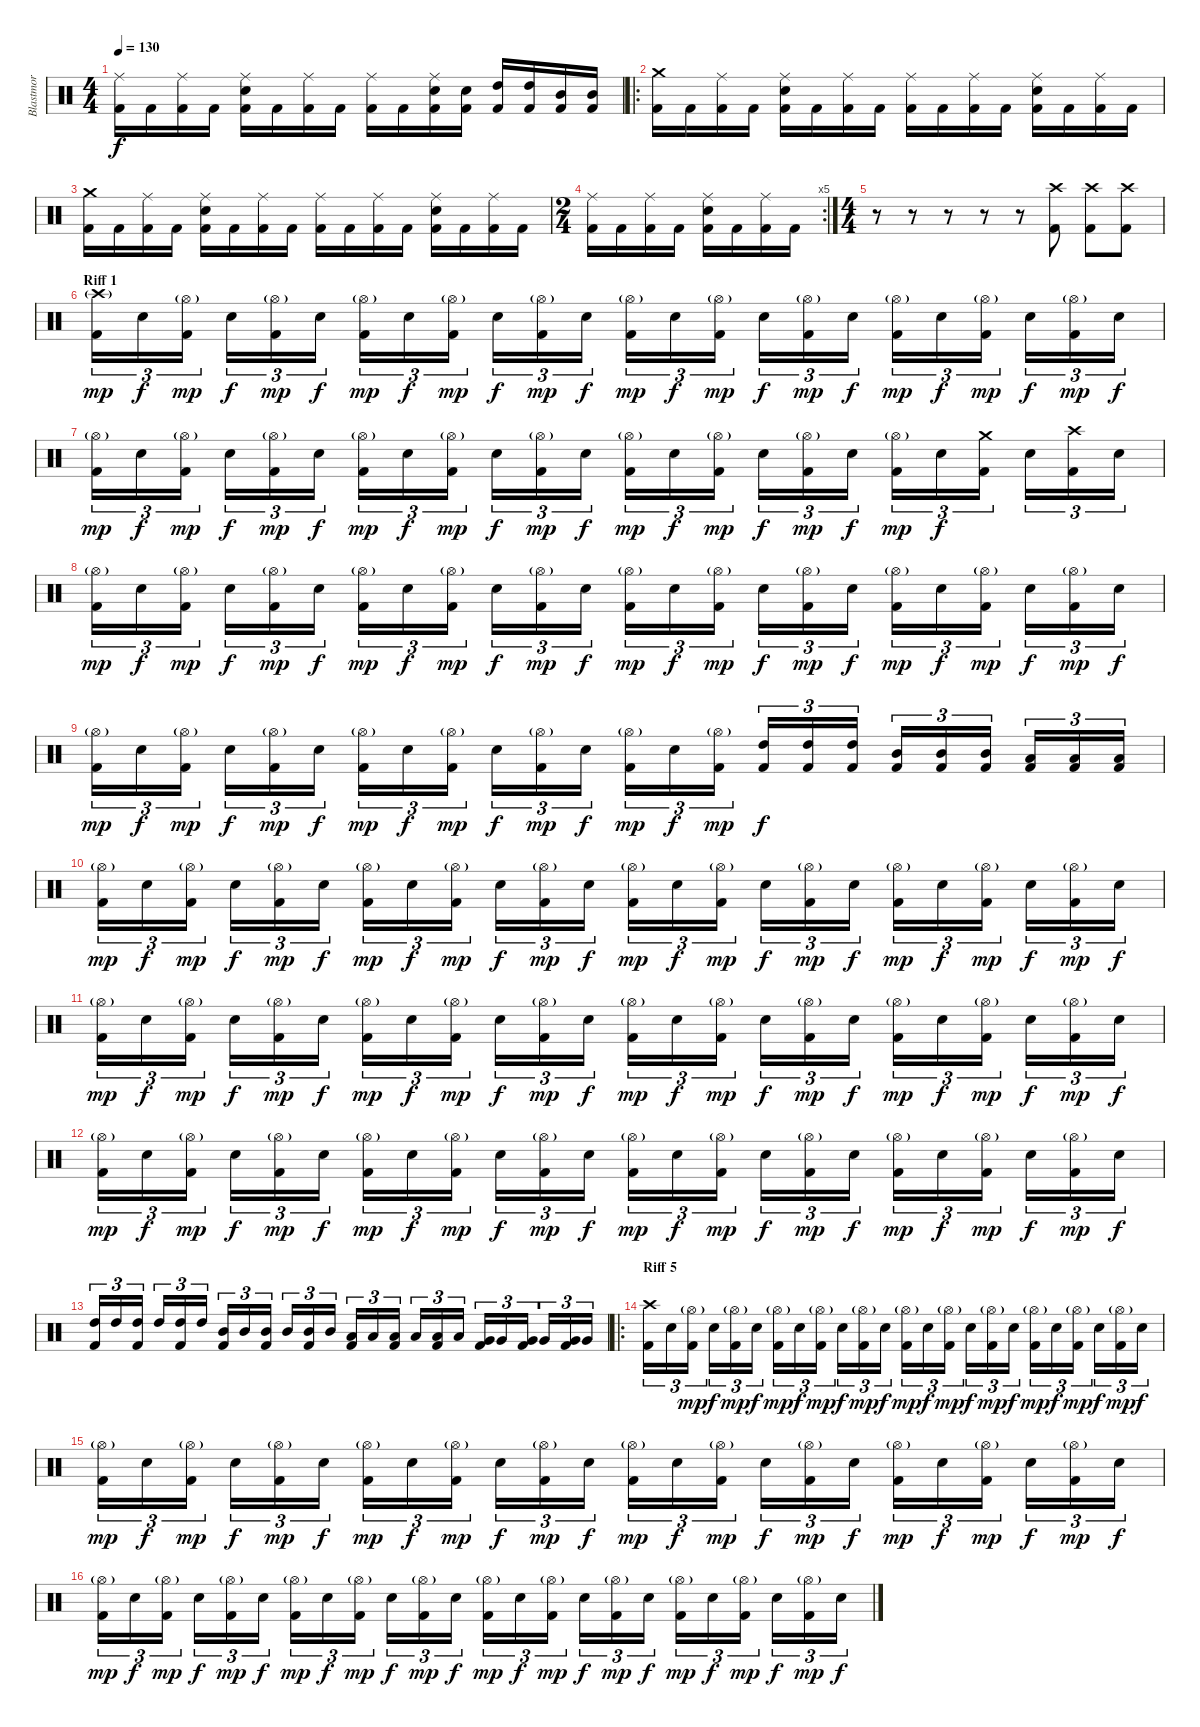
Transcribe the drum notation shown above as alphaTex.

\track ("Blastmor" "Blastmor") {instrument percussion}
\staff {score}
\articulation defaults
\ts (4 4)
\tempo 130
\clef neutral
\ks c
("Ride (middle)" "Kick (hit) 2").16{dy f} "Kick (hit) 2".16 ("Ride (middle)" "Kick (hit) 2").16 "Kick (hit) 2".16 ("Ride (middle)" "Electric Snare (hit)" "Kick (hit) 2").16 "Kick (hit) 2".16 ("Ride (middle)" "Kick (hit) 2").16 "Kick (hit) 2".16 ("Ride (middle)" "Kick (hit) 2").16 "Kick (hit) 2".16 ("Ride (middle)" "Electric Snare (hit)" "Kick (hit) 2").16 ("Electric Snare (hit)" "Kick (hit) 2").16 ("High Tom (hit)" "Kick (hit) 2").16 ("High Tom (hit)" "Kick (hit) 2").16 ("Mid Tom (hit)" "Kick (hit) 2").16 ("Mid Tom (hit)" "Kick (hit) 2").16 |
\ro
("Crash medium (hit)" "Kick (hit) 2").16 "Kick (hit) 2".16 ("Ride (middle)" "Kick (hit) 2").16 "Kick (hit) 2".16 ("Ride (middle)" "Electric Snare (hit)" "Kick (hit) 2").16 "Kick (hit) 2".16 ("Ride (middle)" "Kick (hit) 2").16 "Kick (hit) 2".16 ("Ride (middle)" "Kick (hit) 2").16 "Kick (hit) 2".16 ("Ride (middle)" "Kick (hit) 2").16 "Kick (hit) 2".16 ("Ride (middle)" "Electric Snare (hit)" "Kick (hit) 2").16 "Kick (hit) 2".16 ("Ride (middle)" "Kick (hit) 2").16 "Kick (hit) 2".16 |
("Crash medium (hit)" "Kick (hit) 2").16 "Kick (hit) 2".16 ("Ride (middle)" "Kick (hit) 2").16 "Kick (hit) 2".16 ("Ride (middle)" "Electric Snare (hit)" "Kick (hit) 2").16 "Kick (hit) 2".16 ("Ride (middle)" "Kick (hit) 2").16 "Kick (hit) 2".16 ("Ride (middle)" "Kick (hit) 2").16 "Kick (hit) 2".16 ("Ride (middle)" "Kick (hit) 2").16 "Kick (hit) 2".16 ("Ride (middle)" "Electric Snare (hit)" "Kick (hit) 2").16 "Kick (hit) 2".16 ("Ride (middle)" "Kick (hit) 2").16 "Kick (hit) 2".16 |
\rc 5
\ts (2 4)
("Ride (middle)" "Kick (hit) 2").16 "Kick (hit) 2".16 ("Ride (middle)" "Kick (hit) 2").16 "Kick (hit) 2".16 ("Ride (middle)" "Electric Snare (hit)" "Kick (hit) 2").16 "Kick (hit) 2".16 ("Ride (middle)" "Kick (hit) 2").16 "Kick (hit) 2".16 |
\ts (4 4)
\section ("" "")
r.8 r.8 r.8 r.8 r.8 ("Crash high (hit)" "Kick (hit) 2").8 ("Crash high (hit)" "Kick (hit) 2").8 ("Crash high (hit)" "Kick (hit) 2").8 |
\section ("" "Riff 1")
("Crash high (hit)"{g} "Kick (hit) 2").16{tu (3 2) dy mp} "Electric Snare (hit)".16{tu (3 2) dy f} ("Hi-Hat (open)"{g} "Kick (hit) 2").16{tu (3 2) dy mp} "Electric Snare (hit)".16{tu (3 2) dy f} ("Hi-Hat (open)"{g} "Kick (hit) 2").16{tu (3 2) dy mp} "Electric Snare (hit)".16{tu (3 2) dy f} ("Hi-Hat (open)"{g} "Kick (hit) 2").16{tu (3 2) dy mp} "Electric Snare (hit)".16{tu (3 2) dy f} ("Hi-Hat (open)"{g} "Kick (hit) 2").16{tu (3 2) dy mp} "Electric Snare (hit)".16{tu (3 2) dy f} ("Hi-Hat (open)"{g} "Kick (hit) 2").16{tu (3 2) dy mp} "Electric Snare (hit)".16{tu (3 2) dy f} ("Hi-Hat (open)"{g} "Kick (hit) 2").16{tu (3 2) dy mp} "Electric Snare (hit)".16{tu (3 2) dy f} ("Hi-Hat (open)"{g} "Kick (hit) 2").16{tu (3 2) dy mp} "Electric Snare (hit)".16{tu (3 2) dy f} ("Hi-Hat (open)"{g} "Kick (hit) 2").16{tu (3 2) dy mp} "Electric Snare (hit)".16{tu (3 2) dy f} ("Hi-Hat (open)"{g} "Kick (hit) 2").16{tu (3 2) dy mp} "Electric Snare (hit)".16{tu (3 2) dy f} ("Hi-Hat (open)"{g} "Kick (hit) 2").16{tu (3 2) dy mp} "Electric Snare (hit)".16{tu (3 2) dy f} ("Hi-Hat (open)"{g} "Kick (hit) 2").16{tu (3 2) dy mp} "Electric Snare (hit)".16{tu (3 2) dy f} |
("Hi-Hat (open)"{g} "Kick (hit) 2").16{tu (3 2) dy mp} "Electric Snare (hit)".16{tu (3 2) dy f} ("Hi-Hat (open)"{g} "Kick (hit) 2").16{tu (3 2) dy mp} "Electric Snare (hit)".16{tu (3 2) dy f} ("Hi-Hat (open)"{g} "Kick (hit) 2").16{tu (3 2) dy mp} "Electric Snare (hit)".16{tu (3 2) dy f} ("Hi-Hat (open)"{g} "Kick (hit) 2").16{tu (3 2) dy mp} "Electric Snare (hit)".16{tu (3 2) dy f} ("Hi-Hat (open)"{g} "Kick (hit) 2").16{tu (3 2) dy mp} "Electric Snare (hit)".16{tu (3 2) dy f} ("Hi-Hat (open)"{g} "Kick (hit) 2").16{tu (3 2) dy mp} "Electric Snare (hit)".16{tu (3 2) dy f} ("Hi-Hat (open)"{g} "Kick (hit) 2").16{tu (3 2) dy mp} "Electric Snare (hit)".16{tu (3 2) dy f} ("Hi-Hat (open)"{g} "Kick (hit) 2").16{tu (3 2) dy mp} "Electric Snare (hit)".16{tu (3 2) dy f} ("Hi-Hat (open)"{g} "Kick (hit) 2").16{tu (3 2) dy mp} "Electric Snare (hit)".16{tu (3 2) dy f} ("Hi-Hat (open)"{g} "Kick (hit) 2").16{tu (3 2) dy mp} "Electric Snare (hit)".16{tu (3 2) dy f} ("Crash medium (hit)" "Kick (hit) 2").16{tu (3 2)} "Electric Snare (hit)".16{tu (3 2)} ("Crash high (hit)" "Kick (hit) 2").16{tu (3 2)} "Electric Snare (hit)".16{tu (3 2)} |
("Hi-Hat (open)"{g} "Kick (hit) 2").16{tu (3 2) dy mp} "Electric Snare (hit)".16{tu (3 2) dy f} ("Hi-Hat (open)"{g} "Kick (hit) 2").16{tu (3 2) dy mp} "Electric Snare (hit)".16{tu (3 2) dy f} ("Hi-Hat (open)"{g} "Kick (hit) 2").16{tu (3 2) dy mp} "Electric Snare (hit)".16{tu (3 2) dy f} ("Hi-Hat (open)"{g} "Kick (hit) 2").16{tu (3 2) dy mp} "Electric Snare (hit)".16{tu (3 2) dy f} ("Hi-Hat (open)"{g} "Kick (hit) 2").16{tu (3 2) dy mp} "Electric Snare (hit)".16{tu (3 2) dy f} ("Hi-Hat (open)"{g} "Kick (hit) 2").16{tu (3 2) dy mp} "Electric Snare (hit)".16{tu (3 2) dy f} ("Hi-Hat (open)"{g} "Kick (hit) 2").16{tu (3 2) dy mp} "Electric Snare (hit)".16{tu (3 2) dy f} ("Hi-Hat (open)"{g} "Kick (hit) 2").16{tu (3 2) dy mp} "Electric Snare (hit)".16{tu (3 2) dy f} ("Hi-Hat (open)"{g} "Kick (hit) 2").16{tu (3 2) dy mp} "Electric Snare (hit)".16{tu (3 2) dy f} ("Hi-Hat (open)"{g} "Kick (hit) 2").16{tu (3 2) dy mp} "Electric Snare (hit)".16{tu (3 2) dy f} ("Hi-Hat (open)"{g} "Kick (hit) 2").16{tu (3 2) dy mp} "Electric Snare (hit)".16{tu (3 2) dy f} ("Hi-Hat (open)"{g} "Kick (hit) 2").16{tu (3 2) dy mp} "Electric Snare (hit)".16{tu (3 2) dy f} |
("Hi-Hat (open)"{g} "Kick (hit) 2").16{tu (3 2) dy mp} "Electric Snare (hit)".16{tu (3 2) dy f} ("Hi-Hat (open)"{g} "Kick (hit) 2").16{tu (3 2) dy mp} "Electric Snare (hit)".16{tu (3 2) dy f} ("Hi-Hat (open)"{g} "Kick (hit) 2").16{tu (3 2) dy mp} "Electric Snare (hit)".16{tu (3 2) dy f} ("Hi-Hat (open)"{g} "Kick (hit) 2").16{tu (3 2) dy mp} "Electric Snare (hit)".16{tu (3 2) dy f} ("Hi-Hat (open)"{g} "Kick (hit) 2").16{tu (3 2) dy mp} "Electric Snare (hit)".16{tu (3 2) dy f} ("Hi-Hat (open)"{g} "Kick (hit) 2").16{tu (3 2) dy mp} "Electric Snare (hit)".16{tu (3 2) dy f} ("Hi-Hat (open)"{g} "Kick (hit) 2").16{tu (3 2) dy mp} "Electric Snare (hit)".16{tu (3 2) dy f} ("Hi-Hat (open)"{g} "Kick (hit) 2").16{tu (3 2) dy mp} ("High Tom (hit)" "Kick (hit) 2").16{tu (3 2) dy f} ("High Tom (hit)" "Kick (hit) 2").16{tu (3 2)} ("High Tom (hit)" "Kick (hit) 2").16{tu (3 2)} ("Mid Tom (hit)" "Kick (hit) 2").16{tu (3 2)} ("Mid Tom (hit)" "Kick (hit) 2").16{tu (3 2)} ("Mid Tom (hit)" "Kick (hit) 2").16{tu (3 2)} ("Low Tom (hit)" "Kick (hit) 2").16{tu (3 2)} ("Low Tom (hit)" "Kick (hit) 2").16{tu (3 2)} ("Low Tom (hit)" "Kick (hit) 2").16{tu (3 2)} |
("Hi-Hat (open)"{g} "Kick (hit) 2").16{tu (3 2) dy mp} "Electric Snare (hit)".16{tu (3 2) dy f} ("Hi-Hat (open)"{g} "Kick (hit) 2").16{tu (3 2) dy mp} "Electric Snare (hit)".16{tu (3 2) dy f} ("Hi-Hat (open)"{g} "Kick (hit) 2").16{tu (3 2) dy mp} "Electric Snare (hit)".16{tu (3 2) dy f} ("Hi-Hat (open)"{g} "Kick (hit) 2").16{tu (3 2) dy mp} "Electric Snare (hit)".16{tu (3 2) dy f} ("Hi-Hat (open)"{g} "Kick (hit) 2").16{tu (3 2) dy mp} "Electric Snare (hit)".16{tu (3 2) dy f} ("Hi-Hat (open)"{g} "Kick (hit) 2").16{tu (3 2) dy mp} "Electric Snare (hit)".16{tu (3 2) dy f} ("Hi-Hat (open)"{g} "Kick (hit) 2").16{tu (3 2) dy mp} "Electric Snare (hit)".16{tu (3 2) dy f} ("Hi-Hat (open)"{g} "Kick (hit) 2").16{tu (3 2) dy mp} "Electric Snare (hit)".16{tu (3 2) dy f} ("Hi-Hat (open)"{g} "Kick (hit) 2").16{tu (3 2) dy mp} "Electric Snare (hit)".16{tu (3 2) dy f} ("Hi-Hat (open)"{g} "Kick (hit) 2").16{tu (3 2) dy mp} "Electric Snare (hit)".16{tu (3 2) dy f} ("Hi-Hat (open)"{g} "Kick (hit) 2").16{tu (3 2) dy mp} "Electric Snare (hit)".16{tu (3 2) dy f} ("Hi-Hat (open)"{g} "Kick (hit) 2").16{tu (3 2) dy mp} "Electric Snare (hit)".16{tu (3 2) dy f} |
("Hi-Hat (open)"{g} "Kick (hit) 2").16{tu (3 2) dy mp} "Electric Snare (hit)".16{tu (3 2) dy f} ("Hi-Hat (open)"{g} "Kick (hit) 2").16{tu (3 2) dy mp} "Electric Snare (hit)".16{tu (3 2) dy f} ("Hi-Hat (open)"{g} "Kick (hit) 2").16{tu (3 2) dy mp} "Electric Snare (hit)".16{tu (3 2) dy f} ("Hi-Hat (open)"{g} "Kick (hit) 2").16{tu (3 2) dy mp} "Electric Snare (hit)".16{tu (3 2) dy f} ("Hi-Hat (open)"{g} "Kick (hit) 2").16{tu (3 2) dy mp} "Electric Snare (hit)".16{tu (3 2) dy f} ("Hi-Hat (open)"{g} "Kick (hit) 2").16{tu (3 2) dy mp} "Electric Snare (hit)".16{tu (3 2) dy f} ("Hi-Hat (open)"{g} "Kick (hit) 2").16{tu (3 2) dy mp} "Electric Snare (hit)".16{tu (3 2) dy f} ("Hi-Hat (open)"{g} "Kick (hit) 2").16{tu (3 2) dy mp} "Electric Snare (hit)".16{tu (3 2) dy f} ("Hi-Hat (open)"{g} "Kick (hit) 2").16{tu (3 2) dy mp} "Electric Snare (hit)".16{tu (3 2) dy f} ("Hi-Hat (open)"{g} "Kick (hit) 2").16{tu (3 2) dy mp} "Electric Snare (hit)".16{tu (3 2) dy f} ("Hi-Hat (open)"{g} "Kick (hit) 2").16{tu (3 2) dy mp} "Electric Snare (hit)".16{tu (3 2) dy f} ("Hi-Hat (open)"{g} "Kick (hit) 2").16{tu (3 2) dy mp} "Electric Snare (hit)".16{tu (3 2) dy f} |
("Hi-Hat (open)"{g} "Kick (hit) 2").16{tu (3 2) dy mp} "Electric Snare (hit)".16{tu (3 2) dy f} ("Hi-Hat (open)"{g} "Kick (hit) 2").16{tu (3 2) dy mp} "Electric Snare (hit)".16{tu (3 2) dy f} ("Hi-Hat (open)"{g} "Kick (hit) 2").16{tu (3 2) dy mp} "Electric Snare (hit)".16{tu (3 2) dy f} ("Hi-Hat (open)"{g} "Kick (hit) 2").16{tu (3 2) dy mp} "Electric Snare (hit)".16{tu (3 2) dy f} ("Hi-Hat (open)"{g} "Kick (hit) 2").16{tu (3 2) dy mp} "Electric Snare (hit)".16{tu (3 2) dy f} ("Hi-Hat (open)"{g} "Kick (hit) 2").16{tu (3 2) dy mp} "Electric Snare (hit)".16{tu (3 2) dy f} ("Hi-Hat (open)"{g} "Kick (hit) 2").16{tu (3 2) dy mp} "Electric Snare (hit)".16{tu (3 2) dy f} ("Hi-Hat (open)"{g} "Kick (hit) 2").16{tu (3 2) dy mp} "Electric Snare (hit)".16{tu (3 2) dy f} ("Hi-Hat (open)"{g} "Kick (hit) 2").16{tu (3 2) dy mp} "Electric Snare (hit)".16{tu (3 2) dy f} ("Hi-Hat (open)"{g} "Kick (hit) 2").16{tu (3 2) dy mp} "Electric Snare (hit)".16{tu (3 2) dy f} ("Hi-Hat (open)"{g} "Kick (hit) 2").16{tu (3 2) dy mp} "Electric Snare (hit)".16{tu (3 2) dy f} ("Hi-Hat (open)"{g} "Kick (hit) 2").16{tu (3 2) dy mp} "Electric Snare (hit)".16{tu (3 2) dy f} |
("High Tom (hit)" "Kick (hit) 2").16{tu (3 2)} "High Tom (hit)".16{tu (3 2)} ("High Tom (hit)" "Kick (hit) 2").16{tu (3 2)} "High Tom (hit)".16{tu (3 2)} ("High Tom (hit)" "Kick (hit) 2").16{tu (3 2)} "High Tom (hit)".16{tu (3 2)} ("Mid Tom (hit)" "Kick (hit) 2").16{tu (3 2)} "Mid Tom (hit)".16{tu (3 2)} ("Mid Tom (hit)" "Kick (hit) 2").16{tu (3 2)} "Mid Tom (hit)".16{tu (3 2)} ("Mid Tom (hit)" "Kick (hit) 2").16{tu (3 2)} "Mid Tom (hit)".16{tu (3 2)} ("Low Tom (hit)" "Kick (hit) 2").16{tu (3 2)} "Low Tom (hit)".16{tu (3 2)} ("Low Tom (hit)" "Kick (hit) 2").16{tu (3 2)} "Low Tom (hit)".16{tu (3 2)} ("Low Tom (hit)" "Kick (hit) 2").16{tu (3 2)} "Low Tom (hit)".16{tu (3 2)} ("Very Low Tom (hit)" "Kick (hit) 2").16{tu (3 2)} "Very Low Tom (hit)".16{tu (3 2)} ("Very Low Tom (hit)" "Kick (hit) 2").16{tu (3 2)} "Very Low Tom (hit)".16{tu (3 2)} ("Very Low Tom (hit)" "Kick (hit) 2").16{tu (3 2)} "Very Low Tom (hit)".16{tu (3 2)} |
\ro
\section ("" "Riff 5")
("Crash high (hit)" "Kick (hit) 2").16{tu (3 2)} "Electric Snare (hit)".16{tu (3 2)} ("Hi-Hat (open)"{g} "Kick (hit) 2").16{tu (3 2) dy mp} "Electric Snare (hit)".16{tu (3 2) dy f} ("Hi-Hat (open)"{g} "Kick (hit) 2").16{tu (3 2) dy mp} "Electric Snare (hit)".16{tu (3 2) dy f} ("Hi-Hat (open)"{g} "Kick (hit) 2").16{tu (3 2) dy mp} "Electric Snare (hit)".16{tu (3 2) dy f} ("Hi-Hat (open)"{g} "Kick (hit) 2").16{tu (3 2) dy mp} "Electric Snare (hit)".16{tu (3 2) dy f} ("Hi-Hat (open)"{g} "Kick (hit) 2").16{tu (3 2) dy mp} "Electric Snare (hit)".16{tu (3 2) dy f} ("Hi-Hat (open)"{g} "Kick (hit) 2").16{tu (3 2) dy mp} "Electric Snare (hit)".16{tu (3 2) dy f} ("Hi-Hat (open)"{g} "Kick (hit) 2").16{tu (3 2) dy mp} "Electric Snare (hit)".16{tu (3 2) dy f} ("Hi-Hat (open)"{g} "Kick (hit) 2").16{tu (3 2) dy mp} "Electric Snare (hit)".16{tu (3 2) dy f} ("Hi-Hat (open)"{g} "Kick (hit) 2").16{tu (3 2) dy mp} "Electric Snare (hit)".16{tu (3 2) dy f} ("Hi-Hat (open)"{g} "Kick (hit) 2").16{tu (3 2) dy mp} "Electric Snare (hit)".16{tu (3 2) dy f} ("Hi-Hat (open)"{g} "Kick (hit) 2").16{tu (3 2) dy mp} "Electric Snare (hit)".16{tu (3 2) dy f} |
("Hi-Hat (open)"{g} "Kick (hit) 2").16{tu (3 2) dy mp} "Electric Snare (hit)".16{tu (3 2) dy f} ("Hi-Hat (open)"{g} "Kick (hit) 2").16{tu (3 2) dy mp} "Electric Snare (hit)".16{tu (3 2) dy f} ("Hi-Hat (open)"{g} "Kick (hit) 2").16{tu (3 2) dy mp} "Electric Snare (hit)".16{tu (3 2) dy f} ("Hi-Hat (open)"{g} "Kick (hit) 2").16{tu (3 2) dy mp} "Electric Snare (hit)".16{tu (3 2) dy f} ("Hi-Hat (open)"{g} "Kick (hit) 2").16{tu (3 2) dy mp} "Electric Snare (hit)".16{tu (3 2) dy f} ("Hi-Hat (open)"{g} "Kick (hit) 2").16{tu (3 2) dy mp} "Electric Snare (hit)".16{tu (3 2) dy f} ("Hi-Hat (open)"{g} "Kick (hit) 2").16{tu (3 2) dy mp} "Electric Snare (hit)".16{tu (3 2) dy f} ("Hi-Hat (open)"{g} "Kick (hit) 2").16{tu (3 2) dy mp} "Electric Snare (hit)".16{tu (3 2) dy f} ("Hi-Hat (open)"{g} "Kick (hit) 2").16{tu (3 2) dy mp} "Electric Snare (hit)".16{tu (3 2) dy f} ("Hi-Hat (open)"{g} "Kick (hit) 2").16{tu (3 2) dy mp} "Electric Snare (hit)".16{tu (3 2) dy f} ("Hi-Hat (open)"{g} "Kick (hit) 2").16{tu (3 2) dy mp} "Electric Snare (hit)".16{tu (3 2) dy f} ("Hi-Hat (open)"{g} "Kick (hit) 2").16{tu (3 2) dy mp} "Electric Snare (hit)".16{tu (3 2) dy f} |
("Hi-Hat (open)"{g} "Kick (hit) 2").16{tu (3 2) dy mp} "Electric Snare (hit)".16{tu (3 2) dy f} ("Hi-Hat (open)"{g} "Kick (hit) 2").16{tu (3 2) dy mp} "Electric Snare (hit)".16{tu (3 2) dy f} ("Hi-Hat (open)"{g} "Kick (hit) 2").16{tu (3 2) dy mp} "Electric Snare (hit)".16{tu (3 2) dy f} ("Hi-Hat (open)"{g} "Kick (hit) 2").16{tu (3 2) dy mp} "Electric Snare (hit)".16{tu (3 2) dy f} ("Hi-Hat (open)"{g} "Kick (hit) 2").16{tu (3 2) dy mp} "Electric Snare (hit)".16{tu (3 2) dy f} ("Hi-Hat (open)"{g} "Kick (hit) 2").16{tu (3 2) dy mp} "Electric Snare (hit)".16{tu (3 2) dy f} ("Hi-Hat (open)"{g} "Kick (hit) 2").16{tu (3 2) dy mp} "Electric Snare (hit)".16{tu (3 2) dy f} ("Hi-Hat (open)"{g} "Kick (hit) 2").16{tu (3 2) dy mp} "Electric Snare (hit)".16{tu (3 2) dy f} ("Hi-Hat (open)"{g} "Kick (hit) 2").16{tu (3 2) dy mp} "Electric Snare (hit)".16{tu (3 2) dy f} ("Hi-Hat (open)"{g} "Kick (hit) 2").16{tu (3 2) dy mp} "Electric Snare (hit)".16{tu (3 2) dy f} ("Hi-Hat (open)"{g} "Kick (hit) 2").16{tu (3 2) dy mp} "Electric Snare (hit)".16{tu (3 2) dy f} ("Hi-Hat (open)"{g} "Kick (hit) 2").16{tu (3 2) dy mp} "Electric Snare (hit)".16{tu (3 2) dy f}
